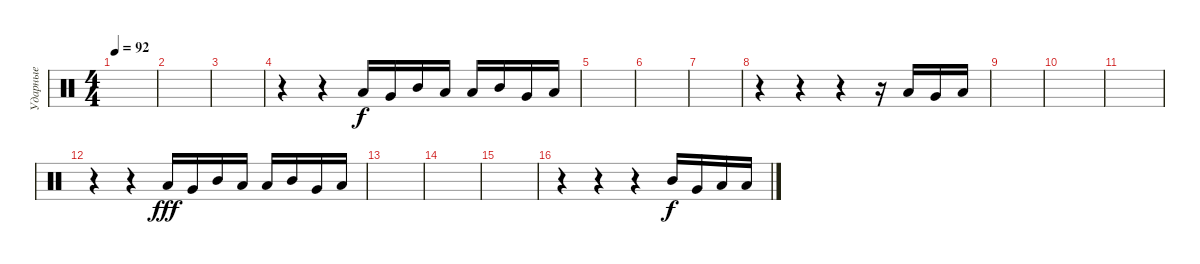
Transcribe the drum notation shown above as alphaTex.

\track ("Ударные" "Ударные") {instrument percussion}
\staff {score}
\articulation defaults
\ts (4 4)
\tempo 92
\clef neutral
\ks c
|
|
|
r.4 r.4 "Low Tom (hit)".16 "Very Low Tom (hit)".16 "Mid Tom (hit)".16 "Low Floor Tom (hit)".16 "Low Tom (hit)".16 "Mid Tom (hit)".16 "Very Low Tom (hit)".16 "Low Floor Tom (hit)".16 |
|
|
|
r.4 r.4 r.4 r.16 "Low Tom (hit)".16 "Very Low Tom (hit)".16 "Low Floor Tom (hit)".16 |
|
|
|
r.4 r.4 "Low Tom (hit)".16{dy fff} "Very Low Tom (hit)".16 "Mid Tom (hit)".16 "Low Floor Tom (hit)".16 "Low Tom (hit)".16 "Mid Tom (hit)".16 "Very Low Tom (hit)".16 "Low Floor Tom (hit)".16 |
|
|
|
r.4 r.4 r.4 "Mid Tom (hit)".16{dy f} "Very Low Tom (hit)".16 "Low Tom (hit)".16 "Low Floor Tom (hit)".16
